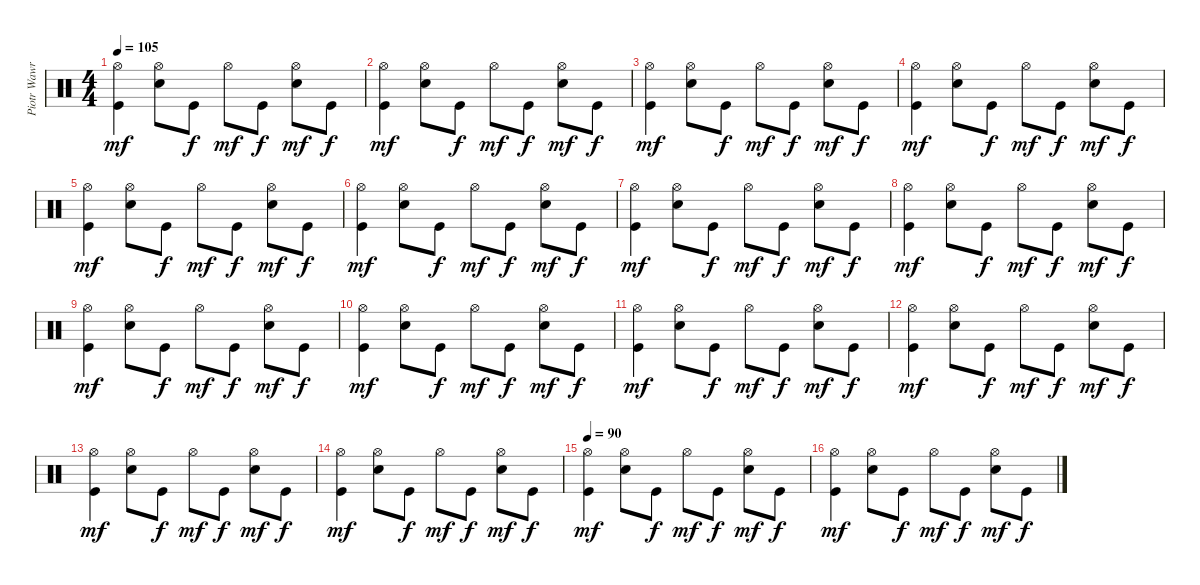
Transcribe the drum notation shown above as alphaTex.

\track ("Piotr Wawrzeniunk (drums)" "Piotr Wawr") {instrument percussion}
\staff {score}
\articulation defaults
\ts (4 4)
\tempo 105
\clef neutral
\ks c
("Kick (hit)" "Hi-Hat (open)").4{dy mf} ("Electric Snare (hit)" "Hi-Hat (open)").8 "Kick (hit)".8{dy f} "Hi-Hat (open)".8{dy mf} "Kick (hit)".8{dy f} ("Electric Snare (hit)" "Hi-Hat (open)").8{dy mf} "Kick (hit)".8{dy f} |
("Kick (hit)" "Hi-Hat (open)").4{dy mf} ("Electric Snare (hit)" "Hi-Hat (open)").8 "Kick (hit)".8{dy f} "Hi-Hat (open)".8{dy mf} "Kick (hit)".8{dy f} ("Electric Snare (hit)" "Hi-Hat (open)").8{dy mf} "Kick (hit)".8{dy f} |
("Kick (hit)" "Hi-Hat (open)").4{dy mf} ("Electric Snare (hit)" "Hi-Hat (open)").8 "Kick (hit)".8{dy f} "Hi-Hat (open)".8{dy mf} "Kick (hit)".8{dy f} ("Electric Snare (hit)" "Hi-Hat (open)").8{dy mf} "Kick (hit)".8{dy f} |
("Kick (hit)" "Hi-Hat (open)").4{dy mf} ("Electric Snare (hit)" "Hi-Hat (open)").8 "Kick (hit)".8{dy f} "Hi-Hat (open)".8{dy mf} "Kick (hit)".8{dy f} ("Electric Snare (hit)" "Hi-Hat (open)").8{dy mf} "Kick (hit)".8{dy f} |
("Kick (hit)" "Hi-Hat (open)").4{dy mf} ("Electric Snare (hit)" "Hi-Hat (open)").8 "Kick (hit)".8{dy f} "Hi-Hat (open)".8{dy mf} "Kick (hit)".8{dy f} ("Electric Snare (hit)" "Hi-Hat (open)").8{dy mf} "Kick (hit)".8{dy f} |
("Kick (hit)" "Hi-Hat (open)").4{dy mf} ("Electric Snare (hit)" "Hi-Hat (open)").8 "Kick (hit)".8{dy f} "Hi-Hat (open)".8{dy mf} "Kick (hit)".8{dy f} ("Electric Snare (hit)" "Hi-Hat (open)").8{dy mf} "Kick (hit)".8{dy f} |
("Kick (hit)" "Hi-Hat (open)").4{dy mf} ("Electric Snare (hit)" "Hi-Hat (open)").8 "Kick (hit)".8{dy f} "Hi-Hat (open)".8{dy mf} "Kick (hit)".8{dy f} ("Electric Snare (hit)" "Hi-Hat (open)").8{dy mf} "Kick (hit)".8{dy f} |
("Kick (hit)" "Hi-Hat (open)").4{dy mf} ("Electric Snare (hit)" "Hi-Hat (open)").8 "Kick (hit)".8{dy f} "Hi-Hat (open)".8{dy mf} "Kick (hit)".8{dy f} ("Electric Snare (hit)" "Hi-Hat (open)").8{dy mf} "Kick (hit)".8{dy f} |
("Kick (hit)" "Hi-Hat (open)").4{dy mf} ("Electric Snare (hit)" "Hi-Hat (open)").8 "Kick (hit)".8{dy f} "Hi-Hat (open)".8{dy mf} "Kick (hit)".8{dy f} ("Electric Snare (hit)" "Hi-Hat (open)").8{dy mf} "Kick (hit)".8{dy f} |
("Kick (hit)" "Hi-Hat (open)").4{dy mf} ("Electric Snare (hit)" "Hi-Hat (open)").8 "Kick (hit)".8{dy f} "Hi-Hat (open)".8{dy mf} "Kick (hit)".8{dy f} ("Electric Snare (hit)" "Hi-Hat (open)").8{dy mf} "Kick (hit)".8{dy f} |
("Kick (hit)" "Hi-Hat (open)").4{dy mf} ("Electric Snare (hit)" "Hi-Hat (open)").8 "Kick (hit)".8{dy f} "Hi-Hat (open)".8{dy mf} "Kick (hit)".8{dy f} ("Electric Snare (hit)" "Hi-Hat (open)").8{dy mf} "Kick (hit)".8{dy f} |
("Kick (hit)" "Hi-Hat (open)").4{dy mf} ("Electric Snare (hit)" "Hi-Hat (open)").8 "Kick (hit)".8{dy f} "Hi-Hat (open)".8{dy mf} "Kick (hit)".8{dy f} ("Electric Snare (hit)" "Hi-Hat (open)").8{dy mf} "Kick (hit)".8{dy f} |
("Kick (hit)" "Hi-Hat (open)").4{dy mf} ("Electric Snare (hit)" "Hi-Hat (open)").8 "Kick (hit)".8{dy f} "Hi-Hat (open)".8{dy mf} "Kick (hit)".8{dy f} ("Electric Snare (hit)" "Hi-Hat (open)").8{dy mf} "Kick (hit)".8{dy f} |
("Kick (hit)" "Hi-Hat (open)").4{dy mf} ("Electric Snare (hit)" "Hi-Hat (open)").8 "Kick (hit)".8{dy f} "Hi-Hat (open)".8{dy mf} "Kick (hit)".8{dy f} ("Electric Snare (hit)" "Hi-Hat (open)").8{dy mf} "Kick (hit)".8{dy f} |
\tempo 90
("Kick (hit)" "Hi-Hat (open)").4{dy mf} ("Electric Snare (hit)" "Hi-Hat (open)").8 "Kick (hit)".8{dy f} "Hi-Hat (open)".8{dy mf} "Kick (hit)".8{dy f} ("Electric Snare (hit)" "Hi-Hat (open)").8{dy mf} "Kick (hit)".8{dy f} |
("Kick (hit)" "Hi-Hat (open)").4{dy mf} ("Electric Snare (hit)" "Hi-Hat (open)").8 "Kick (hit)".8{dy f} "Hi-Hat (open)".8{dy mf} "Kick (hit)".8{dy f} ("Electric Snare (hit)" "Hi-Hat (open)").8{dy mf} "Kick (hit)".8{dy f}
